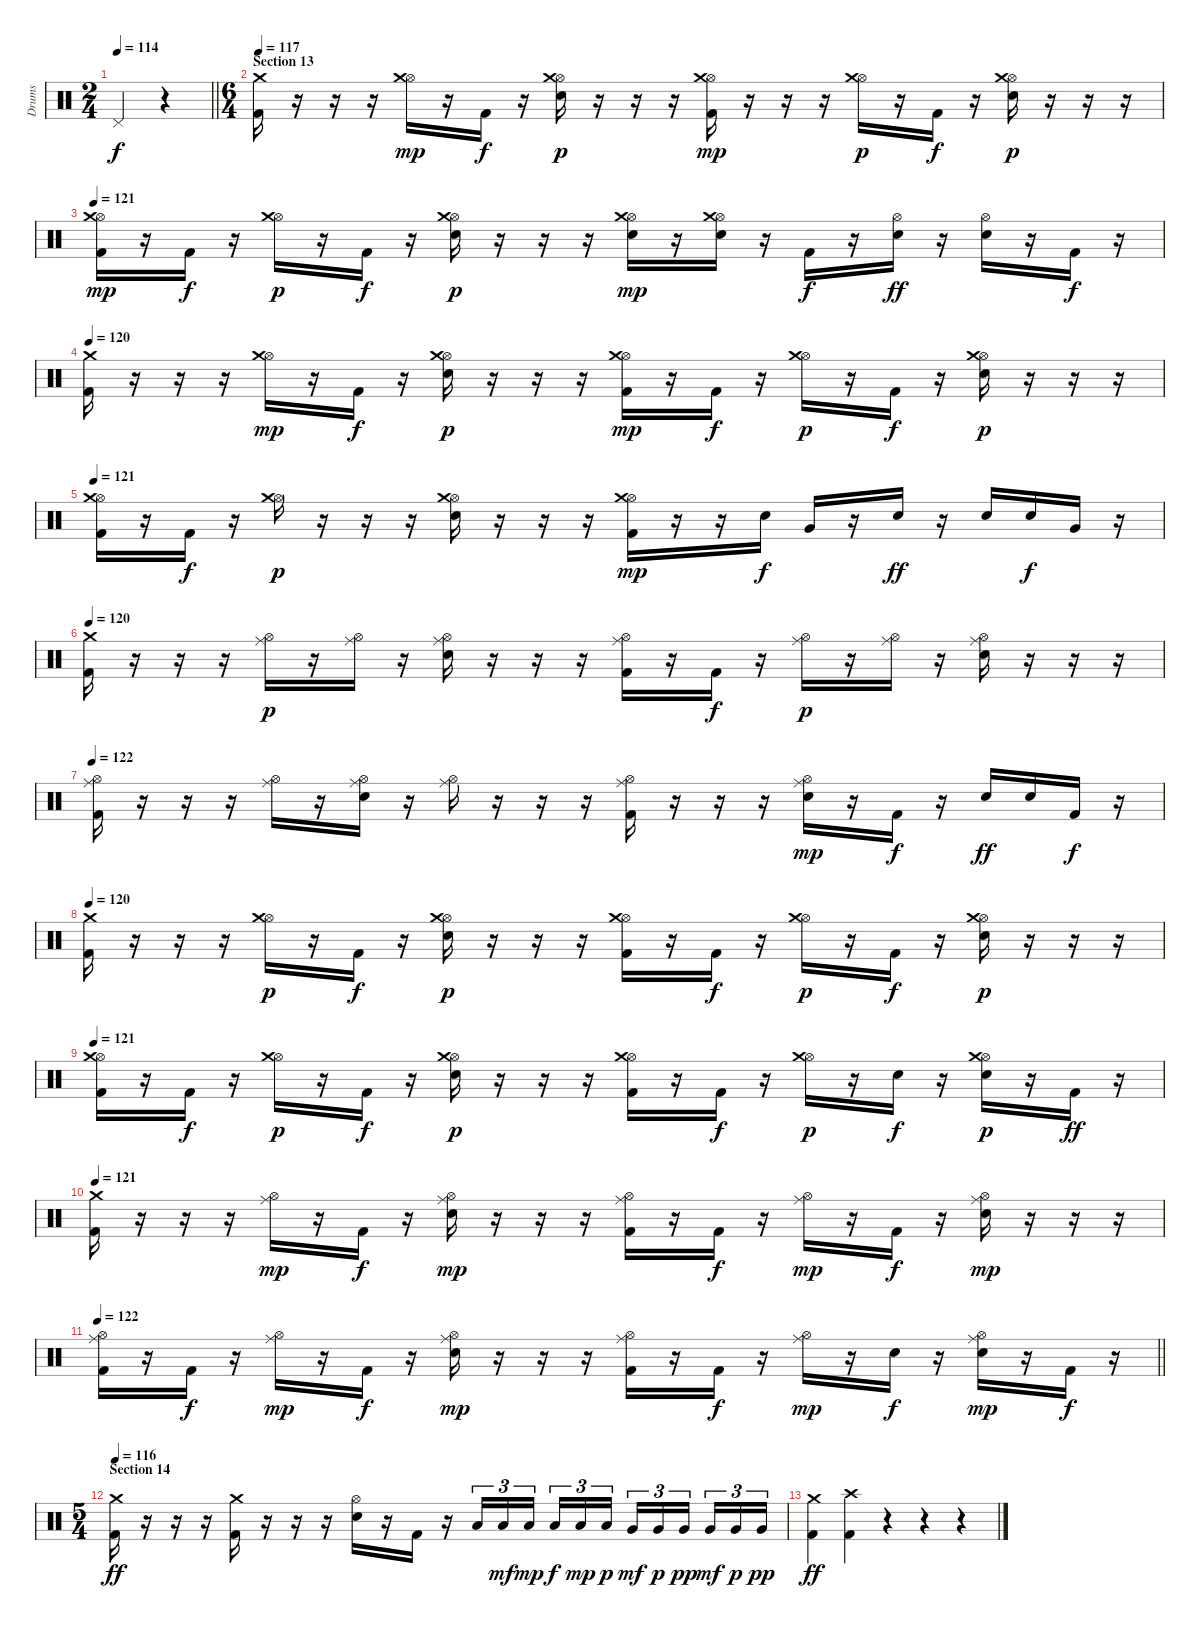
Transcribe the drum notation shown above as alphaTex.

\track ("Drums" "Drums") {instrument percussion}
\staff {score}
\articulation defaults
\ts (2 4)
\tempo 114
\clef neutral
\barLineRight lightlight
\ks c "Pedal Hi-Hat (hit)".4{dy f}
r.4 |
\ts (6 4)
\section ("" "Section 13")
\tempo 117
("Crash medium (hit)" "Kick (hit) 2").16 r.16 r.16 r.16 ("Hi-Hat (open)" "Crash medium (hit)").16{dy mp} r.16 "Kick (hit) 2".16{dy f} r.16 ("Hi-Hat (open)" "Crash medium (hit)" "Electric Snare (hit)").16{dy p} r.16 r.16 r.16 ("Hi-Hat (open)" "Crash medium (hit)" "Kick (hit) 2").16{dy mp} r.16 r.16 r.16 ("Hi-Hat (open)" "Crash medium (hit)").16{dy p} r.16 "Kick (hit) 2".16{dy f} r.16 ("Hi-Hat (open)" "Crash medium (hit)" "Electric Snare (hit)").16{dy p} r.16 r.16 r.16 |
\tempo 121
("Hi-Hat (open)" "Crash medium (hit)" "Kick (hit) 2").16{dy mp} r.16 "Kick (hit) 2".16{dy f} r.16 ("Hi-Hat (open)" "Crash medium (hit)").16{dy p} r.16 "Kick (hit) 2".16{dy f} r.16 ("Hi-Hat (open)" "Crash medium (hit)" "Electric Snare (hit)").16{dy p} r.16 r.16 r.16 ("Hi-Hat (open)" "Crash medium (hit)" "Electric Snare (hit)").16{dy mp} r.16 ("Hi-Hat (open)" "Crash medium (hit)" "Electric Snare (hit)").16 r.16 "Kick (hit) 2".16{dy f} r.16 ("Hi-Hat (open)" "Electric Snare (hit)").16{dy ff} r.16 ("Hi-Hat (open)" "Electric Snare (hit)").16 r.16 "Kick (hit) 2".16{dy f} r.16 |
\tempo 120
("Crash medium (hit)" "Kick (hit) 2").16 r.16 r.16 r.16 ("Hi-Hat (open)" "Crash medium (hit)").16{dy mp} r.16 "Kick (hit) 2".16{dy f} r.16 ("Hi-Hat (open)" "Crash medium (hit)" "Electric Snare (hit)").16{dy p} r.16 r.16 r.16 ("Hi-Hat (open)" "Crash medium (hit)" "Kick (hit) 2").16{dy mp} r.16 "Kick (hit) 2".16{dy f} r.16 ("Hi-Hat (open)" "Crash medium (hit)").16{dy p} r.16 "Kick (hit) 2".16{dy f} r.16 ("Hi-Hat (open)" "Crash medium (hit)" "Electric Snare (hit)").16{dy p} r.16 r.16 r.16 |
\tempo 121
("Hi-Hat (open)" "Crash medium (hit)" "Kick (hit) 2").16 r.16 "Kick (hit) 2".16{dy f} r.16 ("Hi-Hat (open)" "Crash medium (hit)").16{dy p} r.16 r.16 r.16 ("Hi-Hat (open)" "Crash medium (hit)" "Electric Snare (hit)").16 r.16 r.16 r.16 ("Hi-Hat (open)" "Crash medium (hit)" "Kick (hit) 2").16{dy mp} r.16 r.16 "Electric Snare (hit)".16{dy f} "Very Low Tom (hit)".16 r.16 "Electric Snare (hit)".16{dy ff} r.16 "Electric Snare (hit)".16 "Electric Snare (hit)".16{dy f} "Very Low Tom (hit)".16 r.16 |
\tempo 120
("Crash medium (hit)" "Kick (hit) 2").16 r.16 r.16 r.16 ("Hi-Hat (open)" "Ride (middle)").16{dy p} r.16 ("Hi-Hat (open)" "Ride (middle)").16 r.16 ("Hi-Hat (open)" "Ride (middle)" "Electric Snare (hit)").16 r.16 r.16 r.16 ("Hi-Hat (open)" "Ride (middle)" "Kick (hit) 2").16 r.16 "Kick (hit) 2".16{dy f} r.16 ("Hi-Hat (open)" "Ride (middle)").16{dy p} r.16 ("Hi-Hat (open)" "Ride (middle)").16 r.16 ("Hi-Hat (open)" "Ride (middle)" "Electric Snare (hit)").16 r.16 r.16 r.16 |
\tempo 122
("Hi-Hat (open)" "Ride (middle)" "Kick (hit) 2").16 r.16 r.16 r.16 ("Hi-Hat (open)" "Ride (middle)").16 r.16 ("Hi-Hat (open)" "Ride (middle)" "Electric Snare (hit)").16 r.16 ("Hi-Hat (open)" "Ride (middle)").16 r.16 r.16 r.16 ("Hi-Hat (open)" "Ride (middle)" "Kick (hit) 2").16 r.16 r.16 r.16 ("Hi-Hat (open)" "Ride (middle)" "Electric Snare (hit)").16{dy mp} r.16 "Kick (hit) 2".16{dy f} r.16 "Electric Snare (hit)".16{dy ff} "Electric Snare (hit)".16 "Kick (hit) 2".16{dy f} r.16 |
\tempo 120
("Crash medium (hit)" "Kick (hit) 2").16 r.16 r.16 r.16 ("Hi-Hat (open)" "Crash medium (hit)").16{dy p} r.16 "Kick (hit) 2".16{dy f} r.16 ("Hi-Hat (open)" "Crash medium (hit)" "Electric Snare (hit)").16{dy p} r.16 r.16 r.16 ("Hi-Hat (open)" "Crash medium (hit)" "Kick (hit) 2").16 r.16 "Kick (hit) 2".16{dy f} r.16 ("Hi-Hat (open)" "Crash medium (hit)").16{dy p} r.16 "Kick (hit) 2".16{dy f} r.16 ("Hi-Hat (open)" "Crash medium (hit)" "Electric Snare (hit)").16{dy p} r.16 r.16 r.16 |
\tempo 121
("Hi-Hat (open)" "Crash medium (hit)" "Kick (hit) 2").16 r.16 "Kick (hit) 2".16{dy f} r.16 ("Hi-Hat (open)" "Crash medium (hit)").16{dy p} r.16 "Kick (hit) 2".16{dy f} r.16 ("Hi-Hat (open)" "Crash medium (hit)" "Electric Snare (hit)").16{dy p} r.16 r.16 r.16 ("Hi-Hat (open)" "Crash medium (hit)" "Kick (hit) 2").16 r.16 "Kick (hit) 2".16{dy f} r.16 ("Hi-Hat (open)" "Crash medium (hit)").16{dy p} r.16 "Electric Snare (hit)".16{dy f} r.16 ("Hi-Hat (open)" "Crash medium (hit)" "Electric Snare (hit)").16{dy p} r.16 "Kick (hit) 2".16{dy ff} r.16 |
\tempo 121
("Crash medium (hit)" "Kick (hit) 2").16 r.16 r.16 r.16 ("Hi-Hat (open)" "Ride (middle)").16{dy mp} r.16 "Kick (hit) 2".16{dy f} r.16 ("Hi-Hat (open)" "Ride (middle)" "Electric Snare (hit)").16{dy mp} r.16 r.16 r.16 ("Hi-Hat (open)" "Ride (middle)" "Kick (hit) 2").16 r.16 "Kick (hit) 2".16{dy f} r.16 ("Hi-Hat (open)" "Ride (middle)").16{dy mp} r.16 "Kick (hit) 2".16{dy f} r.16 ("Hi-Hat (open)" "Ride (middle)" "Electric Snare (hit)").16{dy mp} r.16 r.16 r.16 |
\tempo 122
\barLineRight lightlight
("Hi-Hat (open)" "Ride (middle)" "Kick (hit) 2").16 r.16 "Kick (hit) 2".16{dy f} r.16 ("Hi-Hat (open)" "Ride (middle)").16{dy mp} r.16 "Kick (hit) 2".16{dy f} r.16 ("Hi-Hat (open)" "Ride (middle)" "Electric Snare (hit)").16{dy mp} r.16 r.16 r.16 ("Hi-Hat (open)" "Ride (middle)" "Kick (hit) 2").16 r.16 "Kick (hit) 2".16{dy f} r.16 ("Hi-Hat (open)" "Ride (middle)").16{dy mp} r.16 "Electric Snare (hit)".16{dy f} r.16 ("Hi-Hat (open)" "Ride (middle)" "Electric Snare (hit)").16{dy mp} r.16 "Kick (hit) 2".16{dy f} r.16 |
\ts (5 4)
\section ("" "Section 14")
\tempo 116
("Crash medium (hit)" "Kick (hit) 2").16{dy ff} r.16 r.16 r.16 ("Crash medium (hit)" "Kick (hit) 2").16 r.16 r.16 r.16 ("Hi-Hat (open)" "Electric Snare (hit)").16 r.16 "Kick (hit) 2".16 r.16 "Low Tom (hit)".16{tu (3 2)} "Low Tom (hit)".16{tu (3 2) dy mf} "Low Tom (hit)".16{tu (3 2) dy mp beam splitsecondary} "Low Tom (hit)".16{tu (3 2) dy f} "Low Tom (hit)".16{tu (3 2) dy mp} "Low Tom (hit)".16{tu (3 2) dy p} "Very Low Tom (hit)".16{tu (3 2) dy mf} "Very Low Tom (hit)".16{tu (3 2) dy p} "Very Low Tom (hit)".16{tu (3 2) dy pp beam splitsecondary} "Very Low Tom (hit)".16{tu (3 2) dy mf} "Very Low Tom (hit)".16{tu (3 2) dy p} "Very Low Tom (hit)".16{tu (3 2) dy pp} |
("Crash medium (hit)" "Kick (hit) 2").4{dy ff} ("Crash high (hit)" "Kick (hit) 2").4 r.4 r.4 r.4
